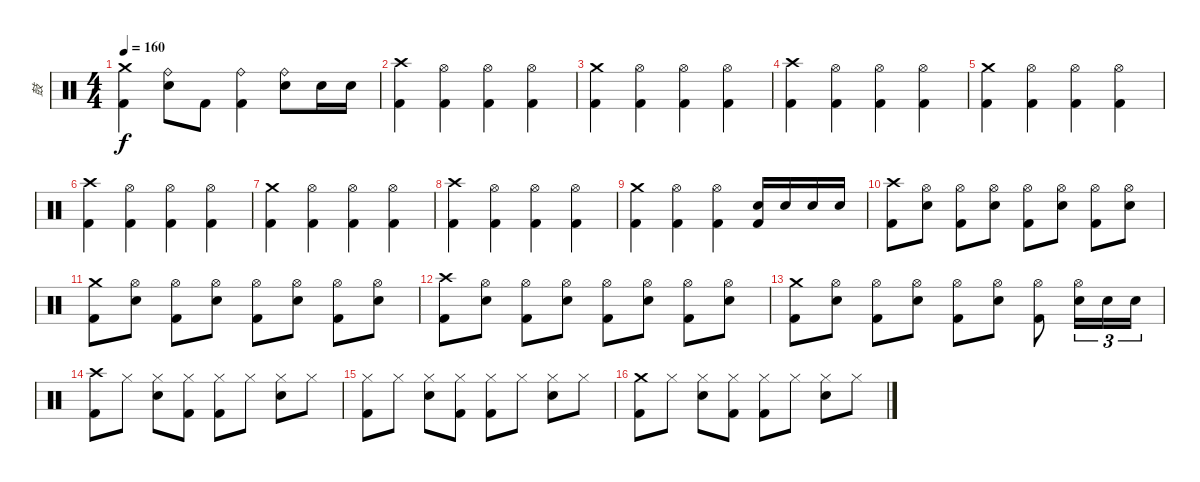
\track ("鼓" "鼓") {instrument percussion}
\staff {score}
\articulation defaults
\ts (4 4)
\tempo 160
\clef neutral
\ks c
("Crash medium (hit)" "Kick (hit) 2").4{dy f} ("Ride (bell)" "Snare (hit) 2").8 "Kick (hit) 2".8 ("Ride (bell)" "Kick (hit) 2").4 ("Ride (bell)" "Snare (hit) 2").8 "Snare (hit) 2".16 "Snare (hit) 2".16 |
("Crash high (hit)" "Kick (hit) 2").4 ("Hi-Hat (open)" "Kick (hit) 2").4 ("Hi-Hat (open)" "Kick (hit) 2").4 ("Hi-Hat (open)" "Kick (hit) 2").4 |
("Crash medium (hit)" "Kick (hit) 2").4 ("Hi-Hat (open)" "Kick (hit) 2").4 ("Hi-Hat (open)" "Kick (hit) 2").4 ("Hi-Hat (open)" "Kick (hit) 2").4 |
("Crash high (hit)" "Kick (hit) 2").4 ("Hi-Hat (open)" "Kick (hit) 2").4 ("Hi-Hat (open)" "Kick (hit) 2").4 ("Hi-Hat (open)" "Kick (hit) 2").4 |
("Crash medium (hit)" "Kick (hit) 2").4 ("Hi-Hat (open)" "Kick (hit) 2").4 ("Hi-Hat (open)" "Kick (hit) 2").4 ("Hi-Hat (open)" "Kick (hit) 2").4 |
("Crash high (hit)" "Kick (hit) 2").4 ("Hi-Hat (open)" "Kick (hit) 2").4 ("Hi-Hat (open)" "Kick (hit) 2").4 ("Hi-Hat (open)" "Kick (hit) 2").4 |
("Crash medium (hit)" "Kick (hit) 2").4 ("Hi-Hat (open)" "Kick (hit) 2").4 ("Hi-Hat (open)" "Kick (hit) 2").4 ("Hi-Hat (open)" "Kick (hit) 2").4 |
("Crash high (hit)" "Kick (hit) 2").4 ("Hi-Hat (open)" "Kick (hit) 2").4 ("Hi-Hat (open)" "Kick (hit) 2").4 ("Hi-Hat (open)" "Kick (hit) 2").4 |
("Crash medium (hit)" "Kick (hit) 2").4 ("Hi-Hat (open)" "Kick (hit) 2").4 ("Hi-Hat (open)" "Kick (hit) 2").4 ("Snare (hit) 2" "Kick (hit) 2").16 "Snare (hit) 2".16 "Snare (hit) 2".16 "Snare (hit) 2".16 |
("Crash high (hit)" "Kick (hit) 2").8 ("Hi-Hat (open)" "Snare (hit) 2").8 ("Hi-Hat (open)" "Kick (hit) 2").8 ("Hi-Hat (open)" "Snare (hit) 2").8 ("Hi-Hat (open)" "Kick (hit) 2").8 ("Hi-Hat (open)" "Snare (hit) 2").8 ("Hi-Hat (open)" "Kick (hit) 2").8 ("Hi-Hat (open)" "Snare (hit) 2").8 |
("Crash medium (hit)" "Kick (hit) 2").8 ("Hi-Hat (open)" "Snare (hit) 2").8 ("Hi-Hat (open)" "Kick (hit) 2").8 ("Hi-Hat (open)" "Snare (hit) 2").8 ("Hi-Hat (open)" "Kick (hit) 2").8 ("Hi-Hat (open)" "Snare (hit) 2").8 ("Hi-Hat (open)" "Kick (hit) 2").8 ("Hi-Hat (open)" "Snare (hit) 2").8 |
("Crash high (hit)" "Kick (hit) 2").8 ("Hi-Hat (open)" "Snare (hit) 2").8 ("Hi-Hat (open)" "Kick (hit) 2").8 ("Hi-Hat (open)" "Snare (hit) 2").8 ("Hi-Hat (open)" "Kick (hit) 2").8 ("Hi-Hat (open)" "Snare (hit) 2").8 ("Hi-Hat (open)" "Kick (hit) 2").8 ("Hi-Hat (open)" "Snare (hit) 2").8 |
("Crash medium (hit)" "Kick (hit) 2").8 ("Hi-Hat (open)" "Snare (hit) 2").8 ("Hi-Hat (open)" "Kick (hit) 2").8 ("Hi-Hat (open)" "Snare (hit) 2").8 ("Hi-Hat (open)" "Kick (hit) 2").8 ("Hi-Hat (open)" "Snare (hit) 2").8 ("Hi-Hat (open)" "Kick (hit) 2").8 ("Hi-Hat (open)" "Snare (hit) 2").16{tu (3 2)} "Snare (hit) 2".16{tu (3 2)} "Snare (hit) 2".16{tu (3 2)} |
("Crash high (hit)" "Kick (hit) 2").8 "Hi-Hat (closed)".8 ("Hi-Hat (closed)" "Snare (hit) 2").8 ("Hi-Hat (closed)" "Kick (hit) 2").8 ("Hi-Hat (closed)" "Kick (hit) 2").8 "Hi-Hat (closed)".8 ("Hi-Hat (closed)" "Snare (hit) 2").8 "Hi-Hat (closed)".8 |
("Hi-Hat (closed)" "Kick (hit) 2").8 "Hi-Hat (closed)".8 ("Hi-Hat (closed)" "Snare (hit) 2").8 ("Hi-Hat (closed)" "Kick (hit) 2").8 ("Hi-Hat (closed)" "Kick (hit) 2").8 "Hi-Hat (closed)".8 ("Hi-Hat (closed)" "Snare (hit) 2").8 "Hi-Hat (closed)".8 |
("Crash medium (hit)" "Kick (hit) 2").8 "Hi-Hat (closed)".8 ("Hi-Hat (closed)" "Snare (hit) 2").8 ("Hi-Hat (closed)" "Kick (hit) 2").8 ("Hi-Hat (closed)" "Kick (hit) 2").8 "Hi-Hat (closed)".8 ("Hi-Hat (closed)" "Snare (hit) 2").8 "Hi-Hat (closed)".8
